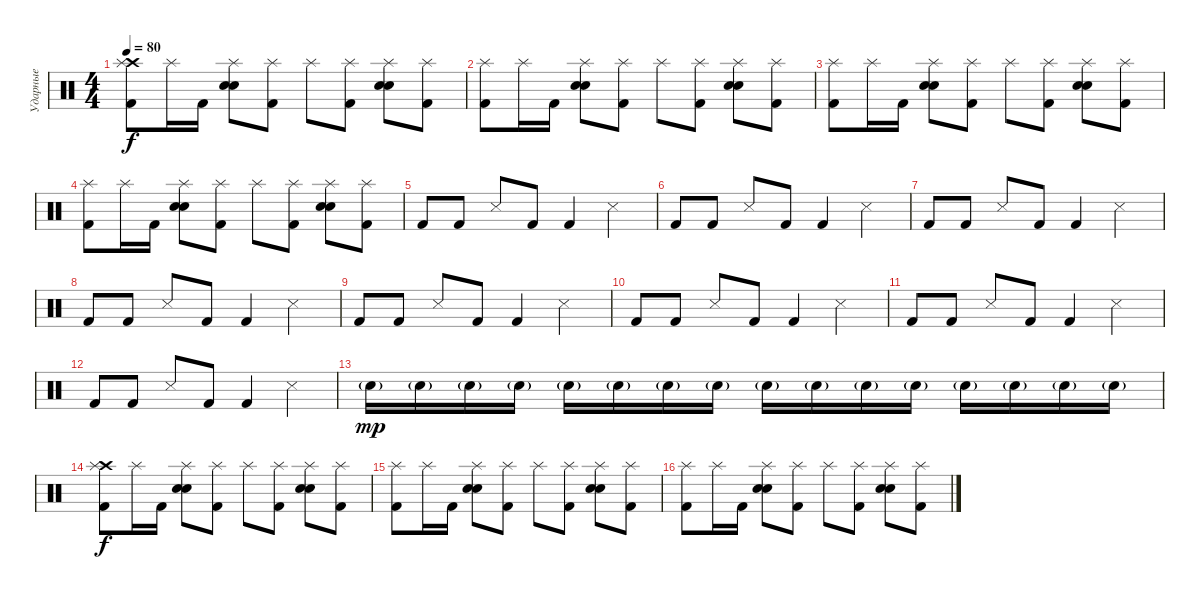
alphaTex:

\track ("Ударные" "Ударные") {instrument percussion}
\staff {score}
\articulation defaults
\ts (4 4)
\tempo 80
\clef neutral
\ks c
("Crash high (hit)" "Splash (hit)" "Kick (hit) 2").8{dy f} "Splash (hit)".16 "Kick (hit) 2".16 ("Splash (hit)" "Snare (hit) 2" "Snare (hit) 2").8 ("Splash (hit)" "Kick (hit) 2").8 "Splash (hit)".8 ("Splash (hit)" "Kick (hit) 2").8 ("Splash (hit)" "Snare (hit) 2" "Snare (hit) 2").8 ("Splash (hit)" "Kick (hit) 2").8 |
("Splash (hit)" "Kick (hit) 2").8 "Splash (hit)".16 "Kick (hit) 2".16 ("Splash (hit)" "Snare (hit) 2" "Snare (hit) 2").8 ("Splash (hit)" "Kick (hit) 2").8 "Splash (hit)".8 ("Splash (hit)" "Kick (hit) 2").8 ("Splash (hit)" "Snare (hit) 2" "Snare (hit) 2").8 ("Splash (hit)" "Kick (hit) 2").8 |
("Splash (hit)" "Kick (hit) 2").8 "Splash (hit)".16 "Kick (hit) 2".16 ("Splash (hit)" "Snare (hit) 2" "Snare (hit) 2").8 ("Splash (hit)" "Kick (hit) 2").8 "Splash (hit)".8 ("Splash (hit)" "Kick (hit) 2").8 ("Splash (hit)" "Snare (hit) 2" "Snare (hit) 2").8 ("Splash (hit)" "Kick (hit) 2").8 |
("Splash (hit)" "Kick (hit) 2").8 "Splash (hit)".16 "Kick (hit) 2".16 ("Splash (hit)" "Snare (hit) 2" "Snare (hit) 2").8 ("Splash (hit)" "Kick (hit) 2").8 "Splash (hit)".8 ("Splash (hit)" "Kick (hit) 2").8 ("Splash (hit)" "Snare (hit) 2" "Snare (hit) 2").8 ("Splash (hit)" "Kick (hit) 2").8 |
"Kick (hit) 2".8 "Kick (hit) 2".8 "Snare (side stick) 3".8 "Kick (hit) 2".8 "Kick (hit) 2".4 "Snare (side stick) 3".4 |
"Kick (hit) 2".8 "Kick (hit) 2".8 "Snare (side stick) 3".8 "Kick (hit) 2".8 "Kick (hit) 2".4 "Snare (side stick) 3".4 |
"Kick (hit) 2".8 "Kick (hit) 2".8 "Snare (side stick) 3".8 "Kick (hit) 2".8 "Kick (hit) 2".4 "Snare (side stick) 3".4 |
"Kick (hit) 2".8 "Kick (hit) 2".8 "Snare (side stick) 3".8 "Kick (hit) 2".8 "Kick (hit) 2".4 "Snare (side stick) 3".4 |
"Kick (hit) 2".8 "Kick (hit) 2".8 "Snare (side stick) 3".8 "Kick (hit) 2".8 "Kick (hit) 2".4 "Snare (side stick) 3".4 |
"Kick (hit) 2".8 "Kick (hit) 2".8 "Snare (side stick) 3".8 "Kick (hit) 2".8 "Kick (hit) 2".4 "Snare (side stick) 3".4 |
"Kick (hit) 2".8 "Kick (hit) 2".8 "Snare (side stick) 3".8 "Kick (hit) 2".8 "Kick (hit) 2".4 "Snare (side stick) 3".4 |
"Kick (hit) 2".8 "Kick (hit) 2".8 "Snare (side stick) 3".8 "Kick (hit) 2".8 "Kick (hit) 2".4 "Snare (side stick) 3".4 |
"Snare (hit) 2"{g}.16{dy mp} "Snare (hit) 2"{g}.16 "Snare (hit) 2"{g}.16 "Snare (hit) 2"{g}.16 "Snare (hit) 2"{g}.16 "Snare (hit) 2"{g}.16 "Snare (hit) 2"{g}.16 "Snare (hit) 2"{g}.16 "Snare (hit) 2"{g}.16 "Snare (hit) 2"{g}.16 "Snare (hit) 2"{g}.16 "Snare (hit) 2"{g}.16 "Snare (hit) 2"{g}.16 "Snare (hit) 2"{g}.16 "Snare (hit) 2"{g}.16 "Snare (hit) 2"{g}.16 |
("Crash high (hit)" "Splash (hit)" "Kick (hit) 2").8{dy f} "Splash (hit)".16 "Kick (hit) 2".16 ("Splash (hit)" "Snare (hit) 2" "Snare (hit) 2").8 ("Splash (hit)" "Kick (hit) 2").8 "Splash (hit)".8 ("Splash (hit)" "Kick (hit) 2").8 ("Splash (hit)" "Snare (hit) 2" "Snare (hit) 2").8 ("Splash (hit)" "Kick (hit) 2").8 |
("Splash (hit)" "Kick (hit) 2").8 "Splash (hit)".16 "Kick (hit) 2".16 ("Splash (hit)" "Snare (hit) 2" "Snare (hit) 2").8 ("Splash (hit)" "Kick (hit) 2").8 "Splash (hit)".8 ("Splash (hit)" "Kick (hit) 2").8 ("Splash (hit)" "Snare (hit) 2" "Snare (hit) 2").8 ("Splash (hit)" "Kick (hit) 2").8 |
("Splash (hit)" "Kick (hit) 2").8 "Splash (hit)".16 "Kick (hit) 2".16 ("Splash (hit)" "Snare (hit) 2" "Snare (hit) 2").8 ("Splash (hit)" "Kick (hit) 2").8 "Splash (hit)".8 ("Splash (hit)" "Kick (hit) 2").8 ("Splash (hit)" "Snare (hit) 2" "Snare (hit) 2").8 ("Splash (hit)" "Kick (hit) 2").8
